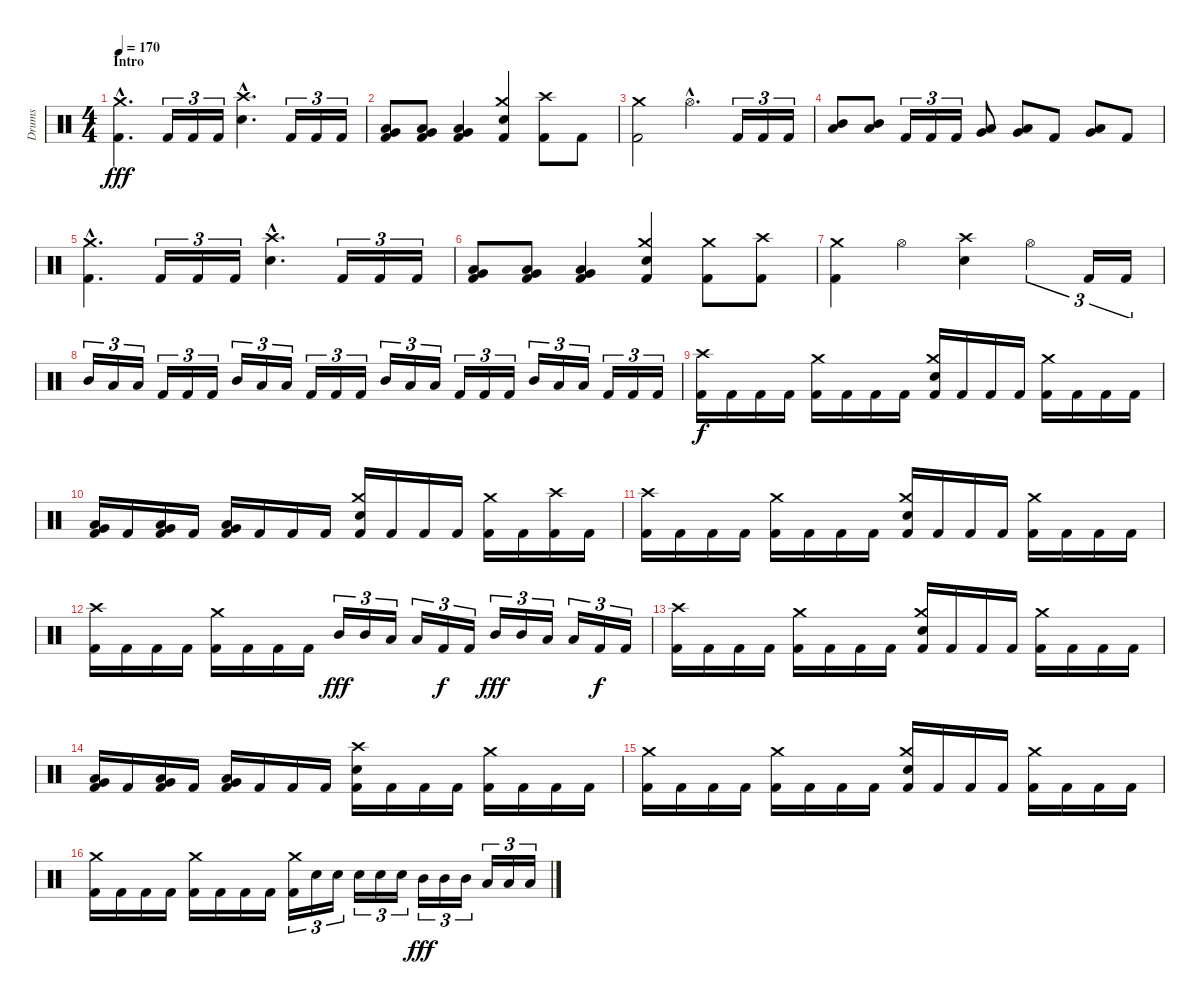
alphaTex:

\track ("Drums" "Drums") {instrument percussion}
\staff {score}
\articulation defaults
\ts (4 4)
\section ("" "Intro")
\tempo 170
\tempo 120
\tempo 170
\clef neutral
\ks c
("Kick (hit) 2"{hac} "Crash medium (hit)"{hac}).4{d dy fff} "Kick (hit) 2".16{tu (3 2)} "Kick (hit) 2".16{tu (3 2)} "Kick (hit) 2".16{tu (3 2)} ("Electric Snare (hit)"{hac} "Crash high (hit)"{hac}).4{d} "Kick (hit) 2".16{tu (3 2)} "Kick (hit) 2".16{tu (3 2)} "Kick (hit) 2".16{tu (3 2)} |
("Kick (hit) 2" "Low Tom (hit)" "Very Low Tom (hit)").8 ("Kick (hit) 2" "Low Tom (hit)" "Very Low Tom (hit)").8 ("Kick (hit) 2" "Low Tom (hit)" "Very Low Tom (hit)").4 ("Kick (hit) 2" "Electric Snare (hit)" "Crash medium (hit)").4 ("Kick (hit) 2" "Crash high (hit)").8 "Kick (hit) 2".8 |
("Kick (hit) 2" "Crash medium (hit)").2 "Hi-Hat (open)"{hac}.4{d} "Kick (hit) 2".16{tu (3 2)} "Kick (hit) 2".16{tu (3 2)} "Kick (hit) 2".16{tu (3 2)} |
("Mid Tom (hit)" "Low Tom (hit)").8 ("Mid Tom (hit)" "Low Tom (hit)").8 "Kick (hit) 2".16{tu (3 2)} "Kick (hit) 2".16{tu (3 2)} "Kick (hit) 2".16{tu (3 2)} ("Low Tom (hit)" "Very Low Tom (hit)").8 ("Low Tom (hit)" "Very Low Tom (hit)").8 "Kick (hit) 2".8 ("Very Low Tom (hit)" "Low Floor Tom (hit)").8 "Kick (hit) 2".8 |
("Kick (hit) 2"{hac} "Crash medium (hit)"{hac}).4{d} "Kick (hit) 2".16{tu (3 2)} "Kick (hit) 2".16{tu (3 2)} "Kick (hit) 2".16{tu (3 2)} ("Electric Snare (hit)"{hac} "Crash high (hit)"{hac}).4{d} "Kick (hit) 2".16{tu (3 2)} "Kick (hit) 2".16{tu (3 2)} "Kick (hit) 2".16{tu (3 2)} |
("Kick (hit) 2" "Low Tom (hit)" "Very Low Tom (hit)").8 ("Kick (hit) 2" "Low Tom (hit)" "Very Low Tom (hit)").8 ("Kick (hit) 2" "Low Tom (hit)" "Very Low Tom (hit)").4 ("Kick (hit) 2" "Electric Snare (hit)" "Crash medium (hit)").4 ("Kick (hit) 2" "Crash medium (hit)").8 ("Kick (hit) 2" "Crash high (hit)").8 |
("Kick (hit) 2" "Crash medium (hit)").4 "Hi-Hat (open)".4 ("Electric Snare (hit)" "Crash high (hit)").4 "Hi-Hat (open)".4{tu (3 2)} "Kick (hit) 2".16{tu (3 2)} "Kick (hit) 2".16{tu (3 2)} |
"Mid Tom (hit)".16{tu (3 2)} "Low Tom (hit)".16{tu (3 2)} "Low Tom (hit)".16{tu (3 2)} "Kick (hit) 2".16{tu (3 2)} "Kick (hit) 2".16{tu (3 2)} "Kick (hit) 2".16{tu (3 2)} "Mid Tom (hit)".16{tu (3 2)} "Low Tom (hit)".16{tu (3 2)} "Low Tom (hit)".16{tu (3 2)} "Kick (hit) 2".16{tu (3 2)} "Kick (hit) 2".16{tu (3 2)} "Kick (hit) 2".16{tu (3 2)} "Mid Tom (hit)".16{tu (3 2)} "Low Tom (hit)".16{tu (3 2)} "Low Tom (hit)".16{tu (3 2)} "Kick (hit) 2".16{tu (3 2)} "Kick (hit) 2".16{tu (3 2)} "Kick (hit) 2".16{tu (3 2)} "Mid Tom (hit)".16{tu (3 2)} "Low Tom (hit)".16{tu (3 2)} "Low Tom (hit)".16{tu (3 2)} "Kick (hit) 2".16{tu (3 2)} "Kick (hit) 2".16{tu (3 2)} "Kick (hit) 2".16{tu (3 2)} |
("Kick (hit) 2" "Crash high (hit)").16{dy f} "Kick (hit) 2".16 "Kick (hit) 2".16 "Kick (hit) 2".16 ("Kick (hit) 2" "Crash medium (hit)").16 "Kick (hit) 2".16 "Kick (hit) 2".16 "Kick (hit) 2".16 ("Kick (hit) 2" "Electric Snare (hit)" "Crash medium (hit)").16 "Kick (hit) 2".16 "Kick (hit) 2".16 "Kick (hit) 2".16 ("Kick (hit) 2" "Crash medium (hit)").16 "Kick (hit) 2".16 "Kick (hit) 2".16 "Kick (hit) 2".16 |
("Kick (hit) 2" "Low Tom (hit)" "Very Low Tom (hit)").16 "Kick (hit) 2".16 ("Kick (hit) 2" "Low Tom (hit)" "Very Low Tom (hit)").16 "Kick (hit) 2".16 ("Kick (hit) 2" "Low Tom (hit)" "Very Low Tom (hit)").16 "Kick (hit) 2".16 "Kick (hit) 2".16 "Kick (hit) 2".16 ("Kick (hit) 2" "Electric Snare (hit)" "Crash medium (hit)").16 "Kick (hit) 2".16 "Kick (hit) 2".16 "Kick (hit) 2".16 ("Kick (hit) 2" "Crash medium (hit)").16 "Kick (hit) 2".16 ("Kick (hit) 2" "Crash high (hit)").16 "Kick (hit) 2".16 |
("Kick (hit) 2" "Crash high (hit)").16 "Kick (hit) 2".16 "Kick (hit) 2".16 "Kick (hit) 2".16 ("Kick (hit) 2" "Crash medium (hit)").16 "Kick (hit) 2".16 "Kick (hit) 2".16 "Kick (hit) 2".16 ("Kick (hit) 2" "Electric Snare (hit)" "Crash medium (hit)").16 "Kick (hit) 2".16 "Kick (hit) 2".16 "Kick (hit) 2".16 ("Kick (hit) 2" "Crash medium (hit)").16 "Kick (hit) 2".16 "Kick (hit) 2".16 "Kick (hit) 2".16 |
("Kick (hit) 2" "Crash high (hit)").16 "Kick (hit) 2".16 "Kick (hit) 2".16 "Kick (hit) 2".16 ("Kick (hit) 2" "Crash medium (hit)").16 "Kick (hit) 2".16 "Kick (hit) 2".16 "Kick (hit) 2".16 "Mid Tom (hit)".16{tu (3 2) dy fff} "Mid Tom (hit)".16{tu (3 2)} "Low Tom (hit)".16{tu (3 2)} "Low Tom (hit)".16{tu (3 2)} "Kick (hit) 2".16{tu (3 2) dy f} "Kick (hit) 2".16{tu (3 2)} "Mid Tom (hit)".16{tu (3 2) dy fff} "Mid Tom (hit)".16{tu (3 2)} "Low Tom (hit)".16{tu (3 2)} "Low Tom (hit)".16{tu (3 2)} "Kick (hit) 2".16{tu (3 2) dy f} "Kick (hit) 2".16{tu (3 2)} |
("Kick (hit) 2" "Crash high (hit)").16 "Kick (hit) 2".16 "Kick (hit) 2".16 "Kick (hit) 2".16 ("Kick (hit) 2" "Crash medium (hit)").16 "Kick (hit) 2".16 "Kick (hit) 2".16 "Kick (hit) 2".16 ("Kick (hit) 2" "Electric Snare (hit)" "Crash medium (hit)").16 "Kick (hit) 2".16 "Kick (hit) 2".16 "Kick (hit) 2".16 ("Kick (hit) 2" "Crash medium (hit)").16 "Kick (hit) 2".16 "Kick (hit) 2".16 "Kick (hit) 2".16 |
("Kick (hit) 2" "Low Tom (hit)" "Very Low Tom (hit)").16 "Kick (hit) 2".16 ("Kick (hit) 2" "Low Tom (hit)" "Very Low Tom (hit)").16 "Kick (hit) 2".16 ("Kick (hit) 2" "Low Tom (hit)" "Very Low Tom (hit)").16 "Kick (hit) 2".16 "Kick (hit) 2".16 "Kick (hit) 2".16 ("Kick (hit) 2" "Electric Snare (hit)" "Crash high (hit)").16 "Kick (hit) 2".16 "Kick (hit) 2".16 "Kick (hit) 2".16 ("Kick (hit) 2" "Crash medium (hit)").16 "Kick (hit) 2".16 "Kick (hit) 2".16 "Kick (hit) 2".16 |
("Kick (hit) 2" "Crash medium (hit)").16 "Kick (hit) 2".16 "Kick (hit) 2".16 "Kick (hit) 2".16 ("Kick (hit) 2" "Crash medium (hit)").16 "Kick (hit) 2".16 "Kick (hit) 2".16 "Kick (hit) 2".16 ("Kick (hit) 2" "Electric Snare (hit)" "Crash medium (hit)").16 "Kick (hit) 2".16 "Kick (hit) 2".16 "Kick (hit) 2".16 ("Kick (hit) 2" "Crash medium (hit)").16 "Kick (hit) 2".16 "Kick (hit) 2".16 "Kick (hit) 2".16 |
("Kick (hit) 2" "Crash medium (hit)").16 "Kick (hit) 2".16 "Kick (hit) 2".16 "Kick (hit) 2".16 ("Kick (hit) 2" "Crash medium (hit)").16 "Kick (hit) 2".16 "Kick (hit) 2".16 "Kick (hit) 2".16 ("Kick (hit) 2" "Crash medium (hit)").16{tu (3 2)} "Electric Snare (hit)".16{tu (3 2)} "Electric Snare (hit)".16{tu (3 2)} "Electric Snare (hit)".16{tu (3 2)} "Electric Snare (hit)".16{tu (3 2)} "Electric Snare (hit)".16{tu (3 2)} "Mid Tom (hit)".16{tu (3 2) dy fff} "Mid Tom (hit)".16{tu (3 2)} "Mid Tom (hit)".16{tu (3 2)} "Low Tom (hit)".16{tu (3 2)} "Low Tom (hit)".16{tu (3 2)} "Low Tom (hit)".16{tu (3 2)}
